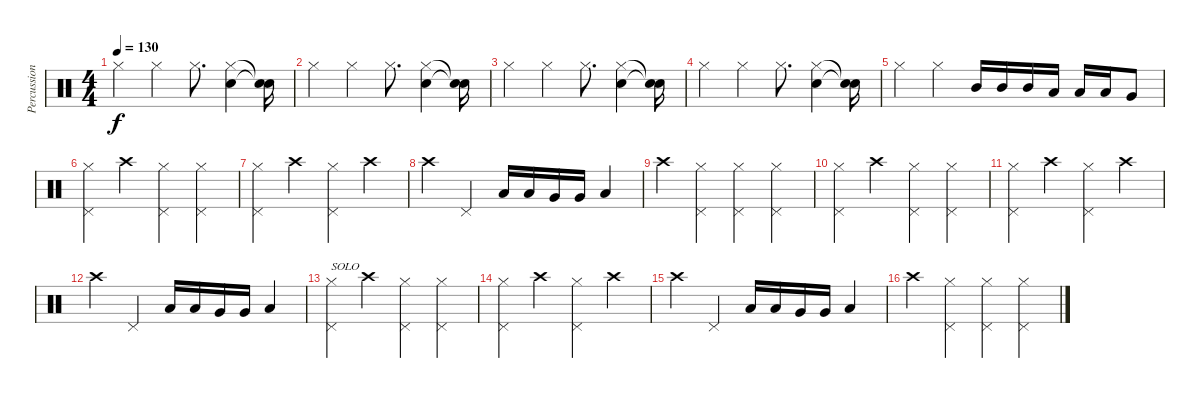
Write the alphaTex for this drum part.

\track ("Percussion" "Percussion") {instrument percussion}
\staff {score}
\articulation defaults
\ts (4 4)
\tempo 130
\clef neutral
\ks c "Hi-Hat (closed)".4{dy f} "Hi-Hat (closed)".4 "Hi-Hat (closed)".8{d}
("Hi-Hat (closed)" "Snare (hit) 2").4 ("Snare (hit)"{t} "Snare (hit)"{t}).16 |
"Hi-Hat (closed)".4 "Hi-Hat (closed)".4 "Hi-Hat (closed)".8{d} ("Hi-Hat (closed)" "Snare (hit) 2").4 ("Snare (hit)"{t} "Snare (hit)"{t}).16 |
"Hi-Hat (closed)".4 "Hi-Hat (closed)".4 "Hi-Hat (closed)".8{d} ("Hi-Hat (closed)" "Snare (hit) 2").4 ("Snare (hit)"{t} "Snare (hit)"{t}).16 |
"Hi-Hat (closed)".4 "Hi-Hat (closed)".4 "Hi-Hat (closed)".8{d} ("Hi-Hat (closed)" "Snare (hit) 2").4 ("Snare (hit)"{t} "Snare (hit)"{t}).16 |
"Hi-Hat (closed)".4 "Hi-Hat (closed)".4 "Mid Tom (hit)".16 "Mid Tom (hit)".16 "Mid Tom (hit)".16 "Low Tom (hit)".16 "Low Tom (hit)".16 "Low Tom (hit)".16 "Very Low Tom (hit)".8 |
("Pedal Hi-Hat (hit)" "Hi-Hat (closed)").4 "Crash high (hit)".4 ("Pedal Hi-Hat (hit)" "Hi-Hat (closed)").4 ("Pedal Hi-Hat (hit)" "Hi-Hat (closed)").4 |
("Pedal Hi-Hat (hit)" "Hi-Hat (closed)").4 "Crash high (hit)".4 ("Pedal Hi-Hat (hit)" "Hi-Hat (closed)").4 "Crash high (hit)".4 |
"Crash high (hit)".4 "Pedal Hi-Hat (hit)".4 "Low Tom (hit)".16 "Low Tom (hit)".16 "Very Low Tom (hit)".16 "Very Low Tom (hit)".16 "Low Floor Tom (hit)".4 |
"Crash high (hit)".4 ("Pedal Hi-Hat (hit)" "Hi-Hat (closed)").4 ("Pedal Hi-Hat (hit)" "Hi-Hat (closed)").4 ("Pedal Hi-Hat (hit)" "Hi-Hat (closed)").4 |
("Pedal Hi-Hat (hit)" "Hi-Hat (closed)").4 "Crash high (hit)".4 ("Pedal Hi-Hat (hit)" "Hi-Hat (closed)").4 ("Pedal Hi-Hat (hit)" "Hi-Hat (closed)").4 |
("Pedal Hi-Hat (hit)" "Hi-Hat (closed)").4 "Crash high (hit)".4 ("Pedal Hi-Hat (hit)" "Hi-Hat (closed)").4 "Crash high (hit)".4 |
"Crash high (hit)".4 "Pedal Hi-Hat (hit)".4 "Low Tom (hit)".16 "Low Tom (hit)".16 "Very Low Tom (hit)".16 "Very Low Tom (hit)".16 "Low Floor Tom (hit)".4 |
("Pedal Hi-Hat (hit)" "Hi-Hat (closed)").4{txt "SOLO"} "Crash high (hit)".4 ("Pedal Hi-Hat (hit)" "Hi-Hat (closed)").4 ("Pedal Hi-Hat (hit)" "Hi-Hat (closed)").4 |
("Pedal Hi-Hat (hit)" "Hi-Hat (closed)").4 "Crash high (hit)".4 ("Pedal Hi-Hat (hit)" "Hi-Hat (closed)").4 "Crash high (hit)".4 |
"Crash high (hit)".4 "Pedal Hi-Hat (hit)".4 "Low Tom (hit)".16 "Low Tom (hit)".16 "Very Low Tom (hit)".16 "Very Low Tom (hit)".16 "Low Floor Tom (hit)".4 |
"Crash high (hit)".4 ("Pedal Hi-Hat (hit)" "Hi-Hat (closed)").4 ("Pedal Hi-Hat (hit)" "Hi-Hat (closed)").4 ("Pedal Hi-Hat (hit)" "Hi-Hat (closed)").4
